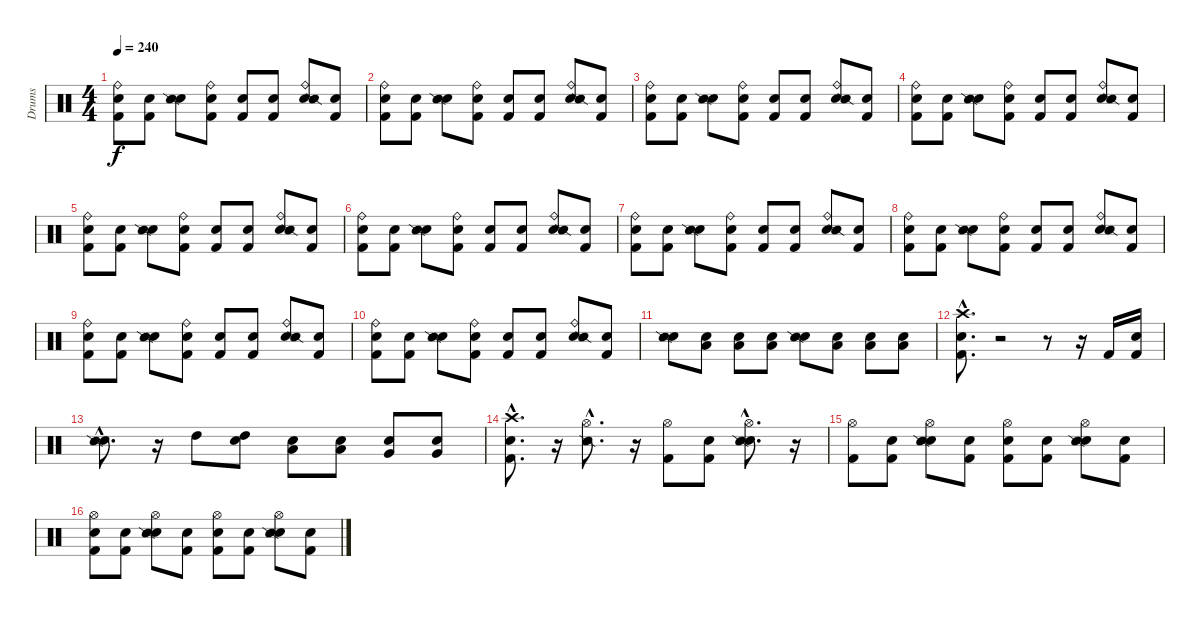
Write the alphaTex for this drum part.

\track ("Drums" "Drums") {instrument percussion}
\staff {score}
\articulation defaults
\ts (4 4)
\tempo 240
\clef neutral
\ks c
("Snare (hit)" "Kick (hit) 2" "Ride (bell)").8{dy f} ("Snare (hit)" "Kick (hit) 2").8 ("Snare (hit)" "Snare (side stick) 2").8 ("Snare (hit)" "Kick (hit) 2" "Ride (bell)").8 ("Snare (hit)" "Kick (hit) 2").8 ("Snare (hit)" "Kick (hit) 2").8 ("Snare (hit)" "Ride (bell)" "Snare (side stick) 2").8 ("Snare (hit)" "Kick (hit) 2").8 |
("Snare (hit)" "Kick (hit) 2" "Ride (bell)").8 ("Snare (hit)" "Kick (hit) 2").8 ("Snare (hit)" "Snare (side stick) 2").8 ("Snare (hit)" "Kick (hit) 2" "Ride (bell)").8 ("Snare (hit)" "Kick (hit) 2").8 ("Snare (hit)" "Kick (hit) 2").8 ("Snare (hit)" "Ride (bell)" "Snare (side stick) 2").8 ("Snare (hit)" "Kick (hit) 2").8 |
("Snare (hit)" "Kick (hit) 2" "Ride (bell)").8 ("Snare (hit)" "Kick (hit) 2").8 ("Snare (hit)" "Snare (side stick) 2").8 ("Snare (hit)" "Kick (hit) 2" "Ride (bell)").8 ("Snare (hit)" "Kick (hit) 2").8 ("Snare (hit)" "Kick (hit) 2").8 ("Snare (hit)" "Ride (bell)" "Snare (side stick) 2").8 ("Snare (hit)" "Kick (hit) 2").8 |
("Snare (hit)" "Kick (hit) 2" "Ride (bell)").8 ("Snare (hit)" "Kick (hit) 2").8 ("Snare (hit)" "Snare (side stick) 2").8 ("Snare (hit)" "Kick (hit) 2" "Ride (bell)").8 ("Snare (hit)" "Kick (hit) 2").8 ("Snare (hit)" "Kick (hit) 2").8 ("Snare (hit)" "Ride (bell)" "Snare (side stick) 2").8 ("Snare (hit)" "Kick (hit) 2").8 |
("Snare (hit)" "Kick (hit) 2" "Ride (bell)").8 ("Snare (hit)" "Kick (hit) 2").8 ("Snare (hit)" "Snare (side stick) 2").8 ("Snare (hit)" "Kick (hit) 2" "Ride (bell)").8 ("Snare (hit)" "Kick (hit) 2").8 ("Snare (hit)" "Kick (hit) 2").8 ("Snare (hit)" "Ride (bell)" "Snare (side stick) 2").8 ("Snare (hit)" "Kick (hit) 2").8 |
("Snare (hit)" "Kick (hit) 2" "Ride (bell)").8 ("Snare (hit)" "Kick (hit) 2").8 ("Snare (hit)" "Snare (side stick) 2").8 ("Snare (hit)" "Kick (hit) 2" "Ride (bell)").8 ("Snare (hit)" "Kick (hit) 2").8 ("Snare (hit)" "Kick (hit) 2").8 ("Snare (hit)" "Ride (bell)" "Snare (side stick) 2").8 ("Snare (hit)" "Kick (hit) 2").8 |
("Snare (hit)" "Kick (hit) 2" "Ride (bell)").8 ("Snare (hit)" "Kick (hit) 2").8 ("Snare (hit)" "Snare (side stick) 2").8 ("Snare (hit)" "Kick (hit) 2" "Ride (bell)").8 ("Snare (hit)" "Kick (hit) 2").8 ("Snare (hit)" "Kick (hit) 2").8 ("Snare (hit)" "Ride (bell)" "Snare (side stick) 2").8 ("Snare (hit)" "Kick (hit) 2").8 |
("Snare (hit)" "Kick (hit) 2" "Ride (bell)").8 ("Snare (hit)" "Kick (hit) 2").8 ("Snare (hit)" "Snare (side stick) 2").8 ("Snare (hit)" "Kick (hit) 2" "Ride (bell)").8 ("Snare (hit)" "Kick (hit) 2").8 ("Snare (hit)" "Kick (hit) 2").8 ("Snare (hit)" "Ride (bell)" "Snare (side stick) 2").8 ("Snare (hit)" "Kick (hit) 2").8 |
("Snare (hit)" "Kick (hit) 2" "Ride (bell)").8 ("Snare (hit)" "Kick (hit) 2").8 ("Snare (hit)" "Snare (side stick) 2").8 ("Snare (hit)" "Kick (hit) 2" "Ride (bell)").8 ("Snare (hit)" "Kick (hit) 2").8 ("Snare (hit)" "Kick (hit) 2").8 ("Snare (hit)" "Ride (bell)" "Snare (side stick) 2").8 ("Snare (hit)" "Kick (hit) 2").8 |
("Snare (hit)" "Kick (hit) 2" "Ride (bell)").8 ("Snare (hit)" "Kick (hit) 2").8 ("Snare (hit)" "Snare (side stick) 2").8 ("Snare (hit)" "Kick (hit) 2" "Ride (bell)").8 ("Snare (hit)" "Kick (hit) 2").8 ("Snare (hit)" "Kick (hit) 2").8 ("Snare (hit)" "Ride (bell)" "Snare (side stick) 2").8 ("Snare (hit)" "Kick (hit) 2").8 |
("Snare (hit)" "Snare (side stick) 2").8 ("Snare (hit)" "Low Tom (hit)").8 ("Snare (hit)" "Low Tom (hit)").8 ("Snare (hit)" "Low Tom (hit)").8 ("Snare (hit)" "Snare (side stick) 2").8 ("Snare (hit)" "Low Tom (hit)").8 ("Snare (hit)" "Low Tom (hit)").8 ("Snare (hit)" "Low Tom (hit)").8 |
("Snare (hit)"{hac} "Kick (hit) 2"{hac} "Crash high (hit)"{hac}).8{d} r.2 r.8 r.16 "Kick (hit) 2".16 ("Snare (hit)" "Kick (hit) 2").16 |
("Snare (hit)"{hac} "Snare (side stick) 2"{hac}).8{d} r.16 "High Tom (hit)".8 ("Snare (hit)" "High Tom (hit)").8 ("Snare (hit)" "Low Tom (hit)").8 ("Snare (hit)" "Low Tom (hit)").8 ("Snare (hit)" "Very Low Tom (hit)").8 ("Snare (hit)" "Very Low Tom (hit)").8 |
("Snare (hit)"{hac} "Kick (hit) 2"{hac} "Crash high (hit)"{hac}).8{d} r.16 ("Hi-Hat (open)"{hac} "Snare (side stick) 2"{hac}).8{d} r.16 ("Kick (hit) 2" "Hi-Hat (open)").8 ("Snare (hit)" "Kick (hit) 2").8 ("Snare (hit)"{hac} "Hi-Hat (open)"{hac} "Snare (side stick) 2"{hac}).8{d} r.16 |
("Kick (hit) 2" "Hi-Hat (open)").8 ("Snare (hit)" "Kick (hit) 2").8 ("Snare (hit)" "Hi-Hat (open)" "Snare (side stick) 2").8 ("Snare (hit)" "Kick (hit) 2").8 ("Snare (hit)" "Kick (hit) 2" "Hi-Hat (open)").8 ("Snare (hit)" "Kick (hit) 2").8 ("Snare (hit)" "Hi-Hat (open)" "Snare (side stick) 2").8 ("Snare (hit)" "Kick (hit) 2").8 |
("Snare (hit)" "Kick (hit) 2" "Hi-Hat (open)").8 ("Snare (hit)" "Kick (hit) 2").8 ("Snare (hit)" "Hi-Hat (open)" "Snare (side stick) 2").8 ("Snare (hit)" "Kick (hit) 2").8 ("Snare (hit)" "Kick (hit) 2" "Hi-Hat (open)").8 ("Snare (hit)" "Kick (hit) 2").8 ("Snare (hit)" "Hi-Hat (open)" "Snare (side stick) 2").8 ("Snare (hit)" "Kick (hit) 2").8
